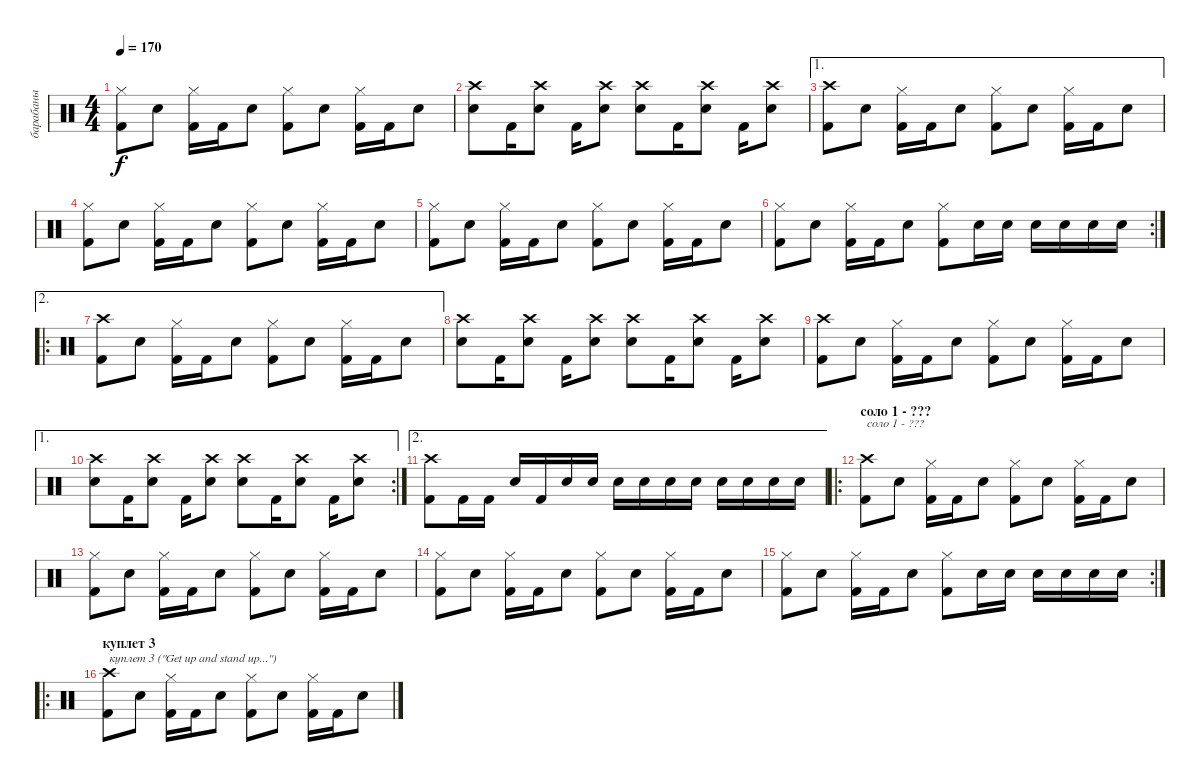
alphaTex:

\track ("барабаны" "барабаны") {instrument percussion}
\staff {score}
\articulation defaults
\ts (4 4)
\tempo 170
\clef neutral
\ks c
("Hi-Hat (closed)" "Kick (hit) 2").8{dy f} "Snare (hit) 2".8 ("Hi-Hat (closed)" "Kick (hit) 2").16 "Kick (hit) 2".16 "Snare (hit) 2".8 ("Hi-Hat (closed)" "Kick (hit) 2").8 "Snare (hit) 2".8 ("Hi-Hat (closed)" "Kick (hit) 2").16 "Kick (hit) 2".16 "Snare (hit) 2".8 |
("Crash high (hit)" "Snare (hit) 2").8 "Kick (hit) 2".16 ("Crash high (hit)" "Snare (hit) 2").8 "Kick (hit) 2".16 ("Crash high (hit)" "Snare (hit) 2").8 ("Crash high (hit)" "Snare (hit) 2").8 "Kick (hit) 2".16 ("Crash high (hit)" "Snare (hit) 2").8 "Kick (hit) 2".16 ("Crash high (hit)" "Snare (hit) 2").8 |
\ae 1
("Crash high (hit)" "Kick (hit) 2").8 "Snare (hit) 2".8 ("Hi-Hat (closed)" "Kick (hit) 2").16 "Kick (hit) 2".16 "Snare (hit) 2".8 ("Hi-Hat (closed)" "Kick (hit) 2").8 "Snare (hit) 2".8 ("Hi-Hat (closed)" "Kick (hit) 2").16 "Kick (hit) 2".16 "Snare (hit) 2".8 |
("Hi-Hat (closed)" "Kick (hit) 2").8 "Snare (hit) 2".8 ("Hi-Hat (closed)" "Kick (hit) 2").16 "Kick (hit) 2".16 "Snare (hit) 2".8 ("Hi-Hat (closed)" "Kick (hit) 2").8 "Snare (hit) 2".8 ("Hi-Hat (closed)" "Kick (hit) 2").16 "Kick (hit) 2".16 "Snare (hit) 2".8 |
("Hi-Hat (closed)" "Kick (hit) 2").8 "Snare (hit) 2".8 ("Hi-Hat (closed)" "Kick (hit) 2").16 "Kick (hit) 2".16 "Snare (hit) 2".8 ("Hi-Hat (closed)" "Kick (hit) 2").8 "Snare (hit) 2".8 ("Hi-Hat (closed)" "Kick (hit) 2").16 "Kick (hit) 2".16 "Snare (hit) 2".8 |
\rc 2
("Hi-Hat (closed)" "Kick (hit) 2").8 "Snare (hit) 2".8 ("Hi-Hat (closed)" "Kick (hit) 2").16 "Kick (hit) 2".16 "Snare (hit) 2".8 ("Hi-Hat (closed)" "Kick (hit) 2").8 "Snare (hit) 2".16 "Snare (hit) 2".16 "Snare (hit) 2".16 "Snare (hit) 2".16 "Snare (hit) 2".16 "Snare (hit) 2".16 |
\ae 2
\ro
("Crash high (hit)" "Kick (hit) 2").8 "Snare (hit) 2".8 ("Hi-Hat (closed)" "Kick (hit) 2").16 "Kick (hit) 2".16 "Snare (hit) 2".8 ("Hi-Hat (closed)" "Kick (hit) 2").8 "Snare (hit) 2".8 ("Hi-Hat (closed)" "Kick (hit) 2").16 "Kick (hit) 2".16 "Snare (hit) 2".8 |
("Crash high (hit)" "Snare (hit) 2").8 "Kick (hit) 2".16 ("Crash high (hit)" "Snare (hit) 2").8 "Kick (hit) 2".16 ("Crash high (hit)" "Snare (hit) 2").8 ("Crash high (hit)" "Snare (hit) 2").8 "Kick (hit) 2".16 ("Crash high (hit)" "Snare (hit) 2").8 "Kick (hit) 2".16 ("Crash high (hit)" "Snare (hit) 2").8 |
("Crash high (hit)" "Kick (hit) 2").8 "Snare (hit) 2".8 ("Hi-Hat (closed)" "Kick (hit) 2").16 "Kick (hit) 2".16 "Snare (hit) 2".8 ("Hi-Hat (closed)" "Kick (hit) 2").8 "Snare (hit) 2".8 ("Hi-Hat (closed)" "Kick (hit) 2").16 "Kick (hit) 2".16 "Snare (hit) 2".8 |
\ae 1
\rc 2
("Crash high (hit)" "Snare (hit) 2").8 "Kick (hit) 2".16 ("Crash high (hit)" "Snare (hit) 2").8 "Kick (hit) 2".16 ("Crash high (hit)" "Snare (hit) 2").8 ("Crash high (hit)" "Snare (hit) 2").8 "Kick (hit) 2".16 ("Crash high (hit)" "Snare (hit) 2").8 "Kick (hit) 2".16 ("Crash high (hit)" "Snare (hit) 2").8 |
\ae 2
("Crash high (hit)" "Kick (hit) 2").8 "Kick (hit) 2".16 "Kick (hit) 2".16 "Snare (hit) 2".16 "Kick (hit) 2".16 "Snare (hit) 2".16 "Snare (hit) 2".16 "Snare (hit) 2".16 "Snare (hit) 2".16 "Snare (hit) 2".16 "Snare (hit) 2".16 "Snare (hit) 2".16 "Snare (hit) 2".16 "Snare (hit) 2".16 "Snare (hit) 2".16 |
\ro
\section ("" "соло 1 - ???")
("Crash high (hit)" "Kick (hit) 2").8{txt "соло 1 - ???"} "Snare (hit) 2".8 ("Hi-Hat (closed)" "Kick (hit) 2").16 "Kick (hit) 2".16 "Snare (hit) 2".8 ("Hi-Hat (closed)" "Kick (hit) 2").8 "Snare (hit) 2".8 ("Hi-Hat (closed)" "Kick (hit) 2").16 "Kick (hit) 2".16 "Snare (hit) 2".8 |
("Hi-Hat (closed)" "Kick (hit) 2").8 "Snare (hit) 2".8 ("Hi-Hat (closed)" "Kick (hit) 2").16 "Kick (hit) 2".16 "Snare (hit) 2".8 ("Hi-Hat (closed)" "Kick (hit) 2").8 "Snare (hit) 2".8 ("Hi-Hat (closed)" "Kick (hit) 2").16 "Kick (hit) 2".16 "Snare (hit) 2".8 |
("Hi-Hat (closed)" "Kick (hit) 2").8 "Snare (hit) 2".8 ("Hi-Hat (closed)" "Kick (hit) 2").16 "Kick (hit) 2".16 "Snare (hit) 2".8 ("Hi-Hat (closed)" "Kick (hit) 2").8 "Snare (hit) 2".8 ("Hi-Hat (closed)" "Kick (hit) 2").16 "Kick (hit) 2".16 "Snare (hit) 2".8 |
\rc 2
("Hi-Hat (closed)" "Kick (hit) 2").8 "Snare (hit) 2".8 ("Hi-Hat (closed)" "Kick (hit) 2").16 "Kick (hit) 2".16 "Snare (hit) 2".8 ("Hi-Hat (closed)" "Kick (hit) 2").8 "Snare (hit) 2".16 "Snare (hit) 2".16 "Snare (hit) 2".16 "Snare (hit) 2".16 "Snare (hit) 2".16 "Snare (hit) 2".16 |
\ro
\section ("" "куплет 3")
("Crash high (hit)" "Kick (hit) 2").8{txt "куплет 3 (\"Get up and stand up...\")"} "Snare (hit) 2".8 ("Hi-Hat (closed)" "Kick (hit) 2").16 "Kick (hit) 2".16 "Snare (hit) 2".8 ("Hi-Hat (closed)" "Kick (hit) 2").8 "Snare (hit) 2".8 ("Hi-Hat (closed)" "Kick (hit) 2").16 "Kick (hit) 2".16 "Snare (hit) 2".8
